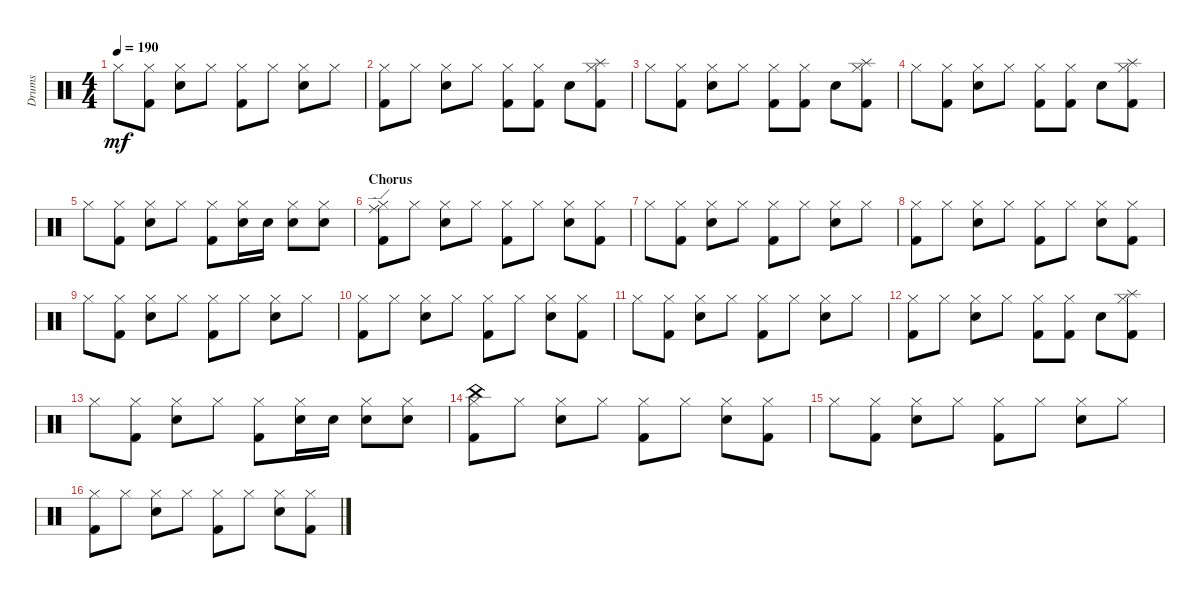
\defaultSystemsLayout 4
\bracketExtendMode groupsimilarinstruments
\otherSystemsTrackNameOrientation horizontal
\track ("Prakarsh" "Drums") {instrument percussion}
\staff {score}
\articulation defaults
\ts (4 4)
\tempo 190
\clef neutral
\ks c "Hi-Hat (closed)".8{dy mf beam Down}
("Hi-Hat (closed)" "Kick (hit) 2").8{beam Down} ("Hi-Hat (closed)" "Snare (hit) 2").8{beam Down} "Hi-Hat (closed)".8{beam Down} ("Hi-Hat (closed)" "Kick (hit) 2").8{beam Down} "Hi-Hat (closed)".8{beam Down} ("Hi-Hat (closed)" "Snare (hit) 2").8{beam Down} "Hi-Hat (closed)".8{beam Down} |
("Kick (hit) 2" "Hi-Hat (closed)").8{beam Down} "Hi-Hat (closed)".8{beam Down} ("Hi-Hat (closed)" "Snare (hit) 2").8{beam Down} "Hi-Hat (closed)".8{beam Down} ("Hi-Hat (closed)" "Kick (hit) 2").8{beam Down} ("Hi-Hat (closed)" "Kick (hit) 2").8{beam Down} "Snare (hit) 2".8{beam Down} ("Hi-Hat (closed)" "Kick (hit) 2" "Splash (hit)").8{beam Down} |
"Hi-Hat (closed)".8{beam Down} ("Hi-Hat (closed)" "Kick (hit) 2").8{beam Down} ("Hi-Hat (closed)" "Snare (hit) 2").8{beam Down} "Hi-Hat (closed)".8{beam Down} ("Hi-Hat (closed)" "Kick (hit) 2").8{beam Down} ("Hi-Hat (closed)" "Kick (hit) 2").8{beam Down} "Snare (hit) 2".8{beam Down} ("Hi-Hat (closed)" "Kick (hit) 2" "Splash (hit)").8{beam Down} |
"Hi-Hat (closed)".8{beam Down} ("Hi-Hat (closed)" "Kick (hit) 2").8{beam Down} ("Hi-Hat (closed)" "Snare (hit) 2").8{beam Down} "Hi-Hat (closed)".8{beam Down} ("Hi-Hat (closed)" "Kick (hit) 2").8{beam Down} ("Hi-Hat (closed)" "Kick (hit) 2").8{beam Down} "Snare (hit) 2".8{beam Down} ("Hi-Hat (closed)" "Kick (hit) 2" "Splash (hit)").8{beam Down} |
"Hi-Hat (closed)".8{beam Down} ("Hi-Hat (closed)" "Kick (hit) 2").8{beam Down} ("Hi-Hat (closed)" "Snare (hit) 2").8{beam Down} "Hi-Hat (closed)".8{beam Down} ("Hi-Hat (closed)" "Kick (hit) 2").8{beam Down} ("Hi-Hat (closed)" "Snare (hit) 2").16{beam Down} "Snare (hit) 2".16{beam Down} ("Hi-Hat (closed)" "Snare (hit) 2").8{beam Down} ("Hi-Hat (closed)" "Snare (hit) 2").8{beam Down} |
\section ("" "Chorus")
("Kick (hit) 2" "Hi-Hat (closed)" "Ride (edge)").8{beam Down} "Hi-Hat (closed)".8{beam Down} ("Hi-Hat (closed)" "Snare (hit) 2").8{beam Down} "Hi-Hat (closed)".8{beam Down} ("Hi-Hat (closed)" "Kick (hit) 2").8{beam Down} "Hi-Hat (closed)".8{beam Down} ("Hi-Hat (closed)" "Snare (hit) 2").8{beam Down} ("Hi-Hat (closed)" "Kick (hit) 2").8{beam Down} |
"Hi-Hat (closed)".8{beam Down} ("Hi-Hat (closed)" "Kick (hit) 2").8{beam Down} ("Hi-Hat (closed)" "Snare (hit) 2").8{beam Down} "Hi-Hat (closed)".8{beam Down} ("Hi-Hat (closed)" "Kick (hit) 2").8{beam Down} "Hi-Hat (closed)".8{beam Down} ("Hi-Hat (closed)" "Snare (hit) 2").8{beam Down} "Hi-Hat (closed)".8{beam Down} |
("Kick (hit) 2" "Hi-Hat (closed)").8{beam Down} "Hi-Hat (closed)".8{beam Down} ("Hi-Hat (closed)" "Snare (hit) 2").8{beam Down} "Hi-Hat (closed)".8{beam Down} ("Hi-Hat (closed)" "Kick (hit) 2").8{beam Down} "Hi-Hat (closed)".8{beam Down} ("Hi-Hat (closed)" "Snare (hit) 2").8{beam Down} ("Hi-Hat (closed)" "Kick (hit) 2").8{beam Down} |
"Hi-Hat (closed)".8{beam Down} ("Hi-Hat (closed)" "Kick (hit) 2").8{beam Down} ("Hi-Hat (closed)" "Snare (hit) 2").8{beam Down} "Hi-Hat (closed)".8{beam Down} ("Hi-Hat (closed)" "Kick (hit) 2").8{beam Down} "Hi-Hat (closed)".8{beam Down} ("Hi-Hat (closed)" "Snare (hit) 2").8{beam Down} "Hi-Hat (closed)".8{beam Down} |
("Kick (hit) 2" "Hi-Hat (closed)").8{beam Down} "Hi-Hat (closed)".8{beam Down} ("Hi-Hat (closed)" "Snare (hit) 2").8{beam Down} "Hi-Hat (closed)".8{beam Down} ("Hi-Hat (closed)" "Kick (hit) 2").8{beam Down} "Hi-Hat (closed)".8{beam Down} ("Hi-Hat (closed)" "Snare (hit) 2").8{beam Down} ("Hi-Hat (closed)" "Kick (hit) 2").8{beam Down} |
"Hi-Hat (closed)".8{beam Down} ("Hi-Hat (closed)" "Kick (hit) 2").8{beam Down} ("Hi-Hat (closed)" "Snare (hit) 2").8{beam Down} "Hi-Hat (closed)".8{beam Down} ("Hi-Hat (closed)" "Kick (hit) 2").8{beam Down} "Hi-Hat (closed)".8{beam Down} ("Hi-Hat (closed)" "Snare (hit) 2").8{beam Down} "Hi-Hat (closed)".8{beam Down} |
("Kick (hit) 2" "Hi-Hat (closed)").8{beam Down} "Hi-Hat (closed)".8{beam Down} ("Hi-Hat (closed)" "Snare (hit) 2").8{beam Down} "Hi-Hat (closed)".8{beam Down} ("Hi-Hat (closed)" "Kick (hit) 2").8{beam Down} ("Hi-Hat (closed)" "Kick (hit) 2").8{beam Down} "Snare (hit) 2".8{beam Down} ("Hi-Hat (closed)" "Kick (hit) 2" "Splash (hit)").8{beam Down} |
"Hi-Hat (closed)".8{beam Down} ("Hi-Hat (closed)" "Kick (hit) 2").8{beam Down} ("Hi-Hat (closed)" "Snare (hit) 2").8{beam Down} "Hi-Hat (closed)".8{beam Down} ("Hi-Hat (closed)" "Kick (hit) 2").8{beam Down} ("Hi-Hat (closed)" "Snare (hit) 2").16{beam Down} "Snare (hit) 2".16{beam Down} ("Hi-Hat (closed)" "Snare (hit) 2").8{beam Down} ("Hi-Hat (closed)" "Snare (hit) 2").8{beam Down} |
("Kick (hit) 2" "Hi-Hat (closed)" "China (hit)").8{beam Down} "Hi-Hat (closed)".8{beam Down} ("Hi-Hat (closed)" "Snare (hit) 2").8{beam Down} "Hi-Hat (closed)".8{beam Down} ("Hi-Hat (closed)" "Kick (hit) 2").8{beam Down} "Hi-Hat (closed)".8{beam Down} ("Hi-Hat (closed)" "Snare (hit) 2").8{beam Down} ("Hi-Hat (closed)" "Kick (hit) 2").8{beam Down} |
"Hi-Hat (closed)".8{beam Down} ("Hi-Hat (closed)" "Kick (hit) 2").8{beam Down} ("Hi-Hat (closed)" "Snare (hit) 2").8{beam Down} "Hi-Hat (closed)".8{beam Down} ("Hi-Hat (closed)" "Kick (hit) 2").8{beam Down} "Hi-Hat (closed)".8{beam Down} ("Hi-Hat (closed)" "Snare (hit) 2").8{beam Down} "Hi-Hat (closed)".8{beam Down} |
("Kick (hit) 2" "Hi-Hat (closed)").8{beam Down} "Hi-Hat (closed)".8{beam Down} ("Hi-Hat (closed)" "Snare (hit) 2").8{beam Down} "Hi-Hat (closed)".8{beam Down} ("Hi-Hat (closed)" "Kick (hit) 2").8{beam Down} "Hi-Hat (closed)".8{beam Down} ("Hi-Hat (closed)" "Snare (hit) 2").8{beam Down} ("Hi-Hat (closed)" "Kick (hit) 2").8{beam Down}
